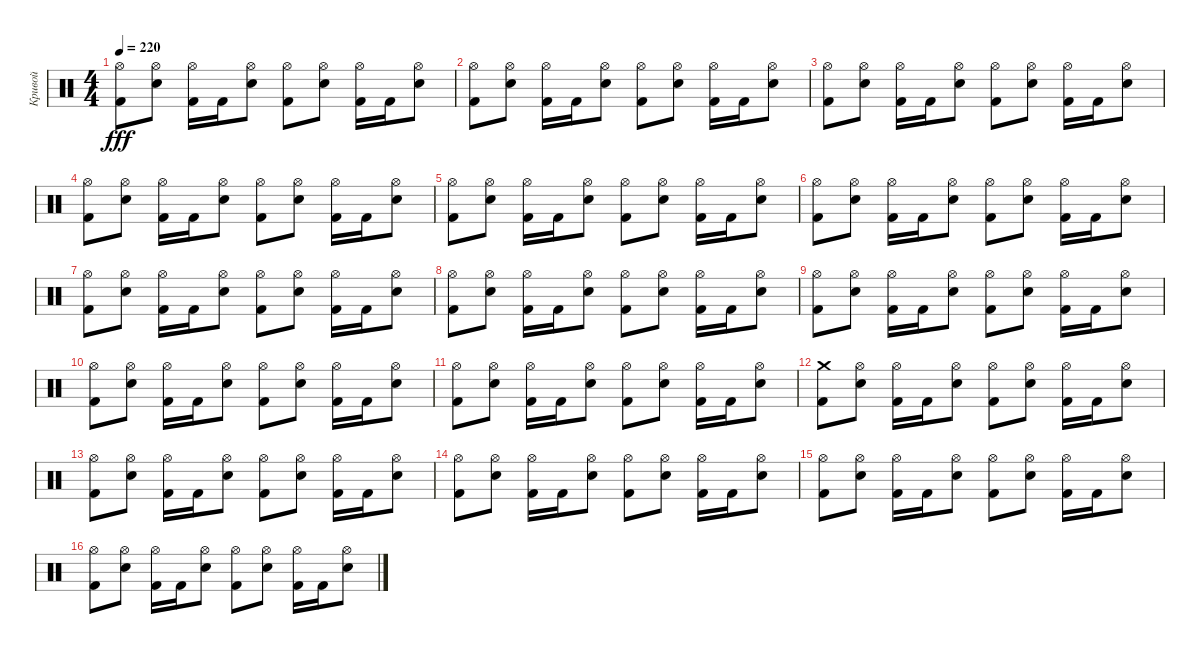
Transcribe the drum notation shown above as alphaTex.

\track ("Кривой" "Кривой") {instrument percussion}
\staff {score}
\articulation defaults
\ts (4 4)
\tempo 220
\clef neutral
\ks c
("Hi-Hat (open)" "Kick (hit) 2").8{dy fff} ("Hi-Hat (open)" "Electric Snare (hit)").8 ("Hi-Hat (open)" "Kick (hit) 2").16 "Kick (hit) 2".16 ("Hi-Hat (open)" "Electric Snare (hit)").8 ("Hi-Hat (open)" "Kick (hit) 2").8 ("Hi-Hat (open)" "Electric Snare (hit)").8 ("Hi-Hat (open)" "Kick (hit) 2").16 "Kick (hit) 2".16 ("Hi-Hat (open)" "Electric Snare (hit)").8 |
("Hi-Hat (open)" "Kick (hit) 2").8 ("Hi-Hat (open)" "Electric Snare (hit)").8 ("Hi-Hat (open)" "Kick (hit) 2").16 "Kick (hit) 2".16 ("Hi-Hat (open)" "Electric Snare (hit)").8 ("Hi-Hat (open)" "Kick (hit) 2").8 ("Hi-Hat (open)" "Electric Snare (hit)").8 ("Hi-Hat (open)" "Kick (hit) 2").16 "Kick (hit) 2".16 ("Hi-Hat (open)" "Electric Snare (hit)").8 |
("Hi-Hat (open)" "Kick (hit) 2").8 ("Hi-Hat (open)" "Electric Snare (hit)").8 ("Hi-Hat (open)" "Kick (hit) 2").16 "Kick (hit) 2".16 ("Hi-Hat (open)" "Electric Snare (hit)").8 ("Hi-Hat (open)" "Kick (hit) 2").8 ("Hi-Hat (open)" "Electric Snare (hit)").8 ("Hi-Hat (open)" "Kick (hit) 2").16 "Kick (hit) 2".16 ("Hi-Hat (open)" "Electric Snare (hit)").8 |
("Hi-Hat (open)" "Kick (hit) 2").8 ("Hi-Hat (open)" "Electric Snare (hit)").8 ("Hi-Hat (open)" "Kick (hit) 2").16 "Kick (hit) 2".16 ("Hi-Hat (open)" "Electric Snare (hit)").8 ("Hi-Hat (open)" "Kick (hit) 2").8 ("Hi-Hat (open)" "Electric Snare (hit)").8 ("Hi-Hat (open)" "Kick (hit) 2").16 "Kick (hit) 2".16 ("Hi-Hat (open)" "Electric Snare (hit)").8 |
("Hi-Hat (open)" "Kick (hit) 2").8 ("Hi-Hat (open)" "Electric Snare (hit)").8 ("Hi-Hat (open)" "Kick (hit) 2").16 "Kick (hit) 2".16 ("Hi-Hat (open)" "Electric Snare (hit)").8 ("Hi-Hat (open)" "Kick (hit) 2").8 ("Hi-Hat (open)" "Electric Snare (hit)").8 ("Hi-Hat (open)" "Kick (hit) 2").16 "Kick (hit) 2".16 ("Hi-Hat (open)" "Electric Snare (hit)").8 |
("Hi-Hat (open)" "Kick (hit) 2").8 ("Hi-Hat (open)" "Electric Snare (hit)").8 ("Hi-Hat (open)" "Kick (hit) 2").16 "Kick (hit) 2".16 ("Hi-Hat (open)" "Electric Snare (hit)").8 ("Hi-Hat (open)" "Kick (hit) 2").8 ("Hi-Hat (open)" "Electric Snare (hit)").8 ("Hi-Hat (open)" "Kick (hit) 2").16 "Kick (hit) 2".16 ("Hi-Hat (open)" "Electric Snare (hit)").8 |
("Hi-Hat (open)" "Kick (hit) 2").8 ("Hi-Hat (open)" "Electric Snare (hit)").8 ("Hi-Hat (open)" "Kick (hit) 2").16 "Kick (hit) 2".16 ("Hi-Hat (open)" "Electric Snare (hit)").8 ("Hi-Hat (open)" "Kick (hit) 2").8 ("Hi-Hat (open)" "Electric Snare (hit)").8 ("Hi-Hat (open)" "Kick (hit) 2").16 "Kick (hit) 2".16 ("Hi-Hat (open)" "Electric Snare (hit)").8 |
("Hi-Hat (open)" "Kick (hit) 2").8 ("Hi-Hat (open)" "Electric Snare (hit)").8 ("Hi-Hat (open)" "Kick (hit) 2").16 "Kick (hit) 2".16 ("Hi-Hat (open)" "Electric Snare (hit)").8 ("Hi-Hat (open)" "Kick (hit) 2").8 ("Hi-Hat (open)" "Electric Snare (hit)").8 ("Hi-Hat (open)" "Kick (hit) 2").16 "Kick (hit) 2".16 ("Hi-Hat (open)" "Electric Snare (hit)").8 |
("Hi-Hat (open)" "Kick (hit) 2").8 ("Hi-Hat (open)" "Electric Snare (hit)").8 ("Hi-Hat (open)" "Kick (hit) 2").16 "Kick (hit) 2".16 ("Hi-Hat (open)" "Electric Snare (hit)").8 ("Hi-Hat (open)" "Kick (hit) 2").8 ("Hi-Hat (open)" "Electric Snare (hit)").8 ("Hi-Hat (open)" "Kick (hit) 2").16 "Kick (hit) 2".16 ("Hi-Hat (open)" "Electric Snare (hit)").8 |
("Hi-Hat (open)" "Kick (hit) 2").8 ("Hi-Hat (open)" "Electric Snare (hit)").8 ("Hi-Hat (open)" "Kick (hit) 2").16 "Kick (hit) 2".16 ("Hi-Hat (open)" "Electric Snare (hit)").8 ("Hi-Hat (open)" "Kick (hit) 2").8 ("Hi-Hat (open)" "Electric Snare (hit)").8 ("Hi-Hat (open)" "Kick (hit) 2").16 "Kick (hit) 2".16 ("Hi-Hat (open)" "Electric Snare (hit)").8 |
("Hi-Hat (open)" "Kick (hit) 2").8 ("Hi-Hat (open)" "Electric Snare (hit)").8 ("Hi-Hat (open)" "Kick (hit) 2").16 "Kick (hit) 2".16 ("Hi-Hat (open)" "Electric Snare (hit)").8 ("Hi-Hat (open)" "Kick (hit) 2").8 ("Hi-Hat (open)" "Electric Snare (hit)").8 ("Hi-Hat (open)" "Kick (hit) 2").16 "Kick (hit) 2".16 ("Hi-Hat (open)" "Electric Snare (hit)").8 |
("Crash medium (hit)" "Kick (hit) 2").8 ("Hi-Hat (open)" "Electric Snare (hit)").8 ("Hi-Hat (open)" "Kick (hit) 2").16 "Kick (hit) 2".16 ("Hi-Hat (open)" "Electric Snare (hit)").8 ("Hi-Hat (open)" "Kick (hit) 2").8 ("Hi-Hat (open)" "Electric Snare (hit)").8 ("Hi-Hat (open)" "Kick (hit) 2").16 "Kick (hit) 2".16 ("Hi-Hat (open)" "Electric Snare (hit)").8 |
("Hi-Hat (open)" "Kick (hit) 2").8 ("Hi-Hat (open)" "Electric Snare (hit)").8 ("Hi-Hat (open)" "Kick (hit) 2").16 "Kick (hit) 2".16 ("Hi-Hat (open)" "Electric Snare (hit)").8 ("Hi-Hat (open)" "Kick (hit) 2").8 ("Hi-Hat (open)" "Electric Snare (hit)").8 ("Hi-Hat (open)" "Kick (hit) 2").16 "Kick (hit) 2".16 ("Hi-Hat (open)" "Electric Snare (hit)").8 |
("Hi-Hat (open)" "Kick (hit) 2").8 ("Hi-Hat (open)" "Electric Snare (hit)").8 ("Hi-Hat (open)" "Kick (hit) 2").16 "Kick (hit) 2".16 ("Hi-Hat (open)" "Electric Snare (hit)").8 ("Hi-Hat (open)" "Kick (hit) 2").8 ("Hi-Hat (open)" "Electric Snare (hit)").8 ("Hi-Hat (open)" "Kick (hit) 2").16 "Kick (hit) 2".16 ("Hi-Hat (open)" "Electric Snare (hit)").8 |
("Hi-Hat (open)" "Kick (hit) 2").8 ("Hi-Hat (open)" "Electric Snare (hit)").8 ("Hi-Hat (open)" "Kick (hit) 2").16 "Kick (hit) 2".16 ("Hi-Hat (open)" "Electric Snare (hit)").8 ("Hi-Hat (open)" "Kick (hit) 2").8 ("Hi-Hat (open)" "Electric Snare (hit)").8 ("Hi-Hat (open)" "Kick (hit) 2").16 "Kick (hit) 2".16 ("Hi-Hat (open)" "Electric Snare (hit)").8 |
("Hi-Hat (open)" "Kick (hit) 2").8 ("Hi-Hat (open)" "Electric Snare (hit)").8 ("Hi-Hat (open)" "Kick (hit) 2").16 "Kick (hit) 2".16 ("Hi-Hat (open)" "Electric Snare (hit)").8 ("Hi-Hat (open)" "Kick (hit) 2").8 ("Hi-Hat (open)" "Electric Snare (hit)").8 ("Hi-Hat (open)" "Kick (hit) 2").16 "Kick (hit) 2".16 ("Hi-Hat (open)" "Electric Snare (hit)").8
